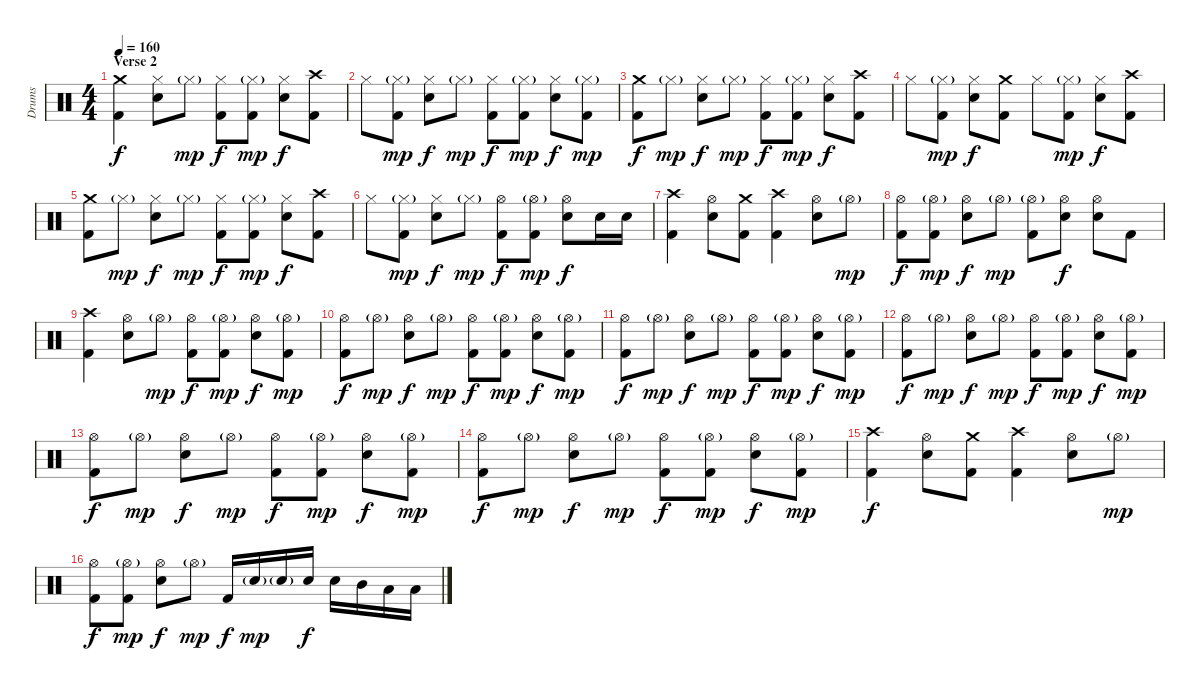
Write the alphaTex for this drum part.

\track ("Drums" "Drums") {instrument percussion}
\staff {score}
\articulation defaults
\ts (4 4)
\section ("" "Verse 2")
\tempo 160
\clef neutral
\ks c
("Crash medium (hit)" "Kick (hit) 2").4{dy f} ("Hi-Hat (closed)" "Snare (hit) 2").8 "Hi-Hat (closed)"{g}.8{dy mp} ("Hi-Hat (closed)" "Kick (hit) 2").8{dy f} ("Hi-Hat (closed)"{g} "Kick (hit) 2").8{dy mp} ("Hi-Hat (closed)" "Snare (hit) 2").8{dy f} ("Crash high (hit)" "Kick (hit) 2").8 |
"Hi-Hat (closed)".8 ("Hi-Hat (closed)"{g} "Kick (hit) 2").8{dy mp} ("Hi-Hat (closed)" "Snare (hit) 2").8{dy f} "Hi-Hat (closed)"{g}.8{dy mp} ("Hi-Hat (closed)" "Kick (hit) 2").8{dy f} ("Hi-Hat (closed)"{g} "Kick (hit) 2").8{dy mp} ("Hi-Hat (closed)" "Snare (hit) 2").8{dy f} ("Hi-Hat (closed)"{g} "Kick (hit) 2").8{dy mp} |
("Crash medium (hit)" "Kick (hit) 2").8{dy f} "Hi-Hat (closed)"{g}.8{dy mp} ("Hi-Hat (closed)" "Snare (hit) 2").8{dy f} "Hi-Hat (closed)"{g}.8{dy mp} ("Hi-Hat (closed)" "Kick (hit) 2").8{dy f} ("Hi-Hat (closed)"{g} "Kick (hit) 2").8{dy mp} ("Hi-Hat (closed)" "Snare (hit) 2").8{dy f} ("Crash high (hit)" "Kick (hit) 2").8 |
"Hi-Hat (closed)".8 ("Hi-Hat (closed)"{g} "Kick (hit) 2").8{dy mp} ("Hi-Hat (closed)" "Snare (hit) 2").8{dy f} ("Crash medium (hit)" "Kick (hit) 2").8 "Hi-Hat (closed)".8 ("Hi-Hat (closed)"{g} "Kick (hit) 2").8{dy mp} ("Hi-Hat (closed)" "Snare (hit) 2").8{dy f} ("Crash high (hit)" "Kick (hit) 2").8 |
("Crash medium (hit)" "Kick (hit) 2").8 "Hi-Hat (closed)"{g}.8{dy mp} ("Hi-Hat (closed)" "Snare (hit) 2").8{dy f} "Hi-Hat (closed)"{g}.8{dy mp} ("Hi-Hat (closed)" "Kick (hit) 2").8{dy f} ("Hi-Hat (closed)"{g} "Kick (hit) 2").8{dy mp} ("Hi-Hat (closed)" "Snare (hit) 2").8{dy f} ("Crash high (hit)" "Kick (hit) 2").8 |
"Hi-Hat (closed)".8 ("Hi-Hat (closed)"{g} "Kick (hit) 2").8{dy mp} ("Hi-Hat (closed)" "Snare (hit) 2").8{dy f} "Hi-Hat (closed)"{g}.8{dy mp} ("Hi-Hat (open)" "Kick (hit) 2").8{dy f} ("Hi-Hat (open)"{g} "Kick (hit) 2").8{dy mp} ("Hi-Hat (open)" "Snare (hit) 2").8{dy f} "Snare (hit) 2".16 "Snare (hit) 2".16 |
("Crash high (hit)" "Kick (hit) 2").4 ("Hi-Hat (open)" "Snare (hit) 2").8 ("Crash medium (hit)" "Kick (hit) 2").8 ("Crash high (hit)" "Kick (hit) 2").4 ("Hi-Hat (open)" "Snare (hit) 2").8 "Hi-Hat (open)"{g}.8{dy mp} |
("Hi-Hat (open)" "Kick (hit) 2").8{dy f} ("Hi-Hat (open)"{g} "Kick (hit) 2").8{dy mp} ("Hi-Hat (open)" "Snare (hit) 2").8{dy f} "Hi-Hat (open)"{g}.8{dy mp} ("Hi-Hat (open)"{g} "Kick (hit) 2").8 ("Hi-Hat (open)" "Snare (hit) 2").8{dy f} ("Hi-Hat (open)" "Snare (hit) 2").8 "Kick (hit) 2".8 |
("Crash high (hit)" "Kick (hit) 2").4 ("Hi-Hat (open)" "Snare (hit) 2").8 "Hi-Hat (open)"{g}.8{dy mp} ("Hi-Hat (open)" "Kick (hit) 2").8{dy f} ("Hi-Hat (open)"{g} "Kick (hit) 2").8{dy mp} ("Hi-Hat (open)" "Snare (hit) 2").8{dy f} ("Hi-Hat (open)"{g} "Kick (hit) 2").8{dy mp} |
("Hi-Hat (open)" "Kick (hit) 2").8{dy f} "Hi-Hat (open)"{g}.8{dy mp} ("Hi-Hat (open)" "Snare (hit) 2").8{dy f} "Hi-Hat (open)"{g}.8{dy mp} ("Hi-Hat (open)" "Kick (hit) 2").8{dy f} ("Hi-Hat (open)"{g} "Kick (hit) 2").8{dy mp} ("Hi-Hat (open)" "Snare (hit) 2").8{dy f} ("Hi-Hat (open)"{g} "Kick (hit) 2").8{dy mp} |
("Hi-Hat (open)" "Kick (hit) 2").8{dy f} "Hi-Hat (open)"{g}.8{dy mp} ("Hi-Hat (open)" "Snare (hit) 2").8{dy f} "Hi-Hat (open)"{g}.8{dy mp} ("Hi-Hat (open)" "Kick (hit) 2").8{dy f} ("Hi-Hat (open)"{g} "Kick (hit) 2").8{dy mp} ("Hi-Hat (open)" "Snare (hit) 2").8{dy f} ("Hi-Hat (open)"{g} "Kick (hit) 2").8{dy mp} |
("Hi-Hat (open)" "Kick (hit) 2").8{dy f} "Hi-Hat (open)"{g}.8{dy mp} ("Hi-Hat (open)" "Snare (hit) 2").8{dy f} "Hi-Hat (open)"{g}.8{dy mp} ("Hi-Hat (open)" "Kick (hit) 2").8{dy f} ("Hi-Hat (open)"{g} "Kick (hit) 2").8{dy mp} ("Hi-Hat (open)" "Snare (hit) 2").8{dy f} ("Hi-Hat (open)"{g} "Kick (hit) 2").8{dy mp} |
("Hi-Hat (open)" "Kick (hit) 2").8{dy f} "Hi-Hat (open)"{g}.8{dy mp} ("Hi-Hat (open)" "Snare (hit) 2").8{dy f} "Hi-Hat (open)"{g}.8{dy mp} ("Hi-Hat (open)" "Kick (hit) 2").8{dy f} ("Hi-Hat (open)"{g} "Kick (hit) 2").8{dy mp} ("Hi-Hat (open)" "Snare (hit) 2").8{dy f} ("Hi-Hat (open)"{g} "Kick (hit) 2").8{dy mp} |
("Hi-Hat (open)" "Kick (hit) 2").8{dy f} "Hi-Hat (open)"{g}.8{dy mp} ("Hi-Hat (open)" "Snare (hit) 2").8{dy f} "Hi-Hat (open)"{g}.8{dy mp} ("Hi-Hat (open)" "Kick (hit) 2").8{dy f} ("Hi-Hat (open)"{g} "Kick (hit) 2").8{dy mp} ("Hi-Hat (open)" "Snare (hit) 2").8{dy f} ("Hi-Hat (open)"{g} "Kick (hit) 2").8{dy mp} |
("Crash high (hit)" "Kick (hit) 2").4{dy f} ("Hi-Hat (open)" "Snare (hit) 2").8 ("Crash medium (hit)" "Kick (hit) 2").8 ("Crash high (hit)" "Kick (hit) 2").4 ("Hi-Hat (open)" "Snare (hit) 2").8 "Hi-Hat (open)"{g}.8{dy mp} |
("Hi-Hat (open)" "Kick (hit) 2").8{dy f} ("Hi-Hat (open)"{g} "Kick (hit) 2").8{dy mp} ("Hi-Hat (open)" "Snare (hit) 2").8{dy f} "Hi-Hat (open)"{g}.8{dy mp} "Kick (hit) 2".16{dy f} "Snare (hit) 2"{g}.16{dy mp} "Snare (hit) 2"{g}.16 "Snare (hit) 2".16{dy f} "Snare (hit) 2".16 "Mid Tom (hit)".16 "Low Tom (hit)".16 "Low Tom (hit)".16
